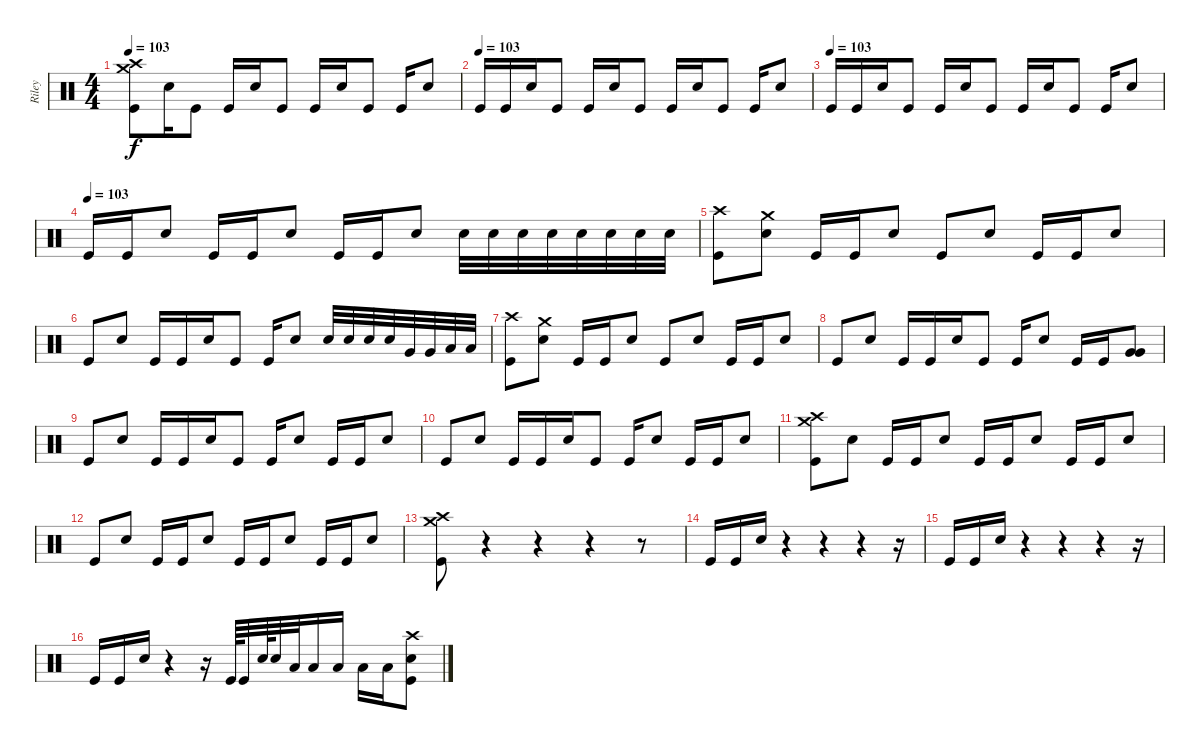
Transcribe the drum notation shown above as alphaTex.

\track ("Riley" "Riley") {instrument percussion}
\staff {score}
\articulation defaults
\ts (4 4)
\tempo 103
\clef neutral
\ks c
("Crash high (hit)" "Crash medium (hit)" "Kick (hit)").8{dy f} "Electric Snare (hit)".16 "Kick (hit)".8 "Kick (hit)".16 "Electric Snare (hit)".16 "Kick (hit)".8 "Kick (hit)".16 "Electric Snare (hit)".16 "Kick (hit)".8 "Kick (hit)".16 "Electric Snare (hit)".8 |
\tempo (103)
"Kick (hit)".16 "Kick (hit)".16 "Electric Snare (hit)".16 "Kick (hit)".8 "Kick (hit)".16 "Electric Snare (hit)".16 "Kick (hit)".8 "Kick (hit)".16 "Electric Snare (hit)".16 "Kick (hit)".8 "Kick (hit)".16 "Electric Snare (hit)".8 |
\tempo (103)
"Kick (hit)".16 "Kick (hit)".16 "Electric Snare (hit)".16 "Kick (hit)".8 "Kick (hit)".16 "Electric Snare (hit)".16 "Kick (hit)".8 "Kick (hit)".16 "Electric Snare (hit)".16 "Kick (hit)".8 "Kick (hit)".16 "Electric Snare (hit)".8 |
\tempo (103)
"Kick (hit)".16 "Kick (hit)".16 "Electric Snare (hit)".8 "Kick (hit)".16 "Kick (hit)".16 "Electric Snare (hit)".8 "Kick (hit)".16 "Kick (hit)".16 "Electric Snare (hit)".8 "Electric Snare (hit)".32 "Electric Snare (hit)".32 "Electric Snare (hit)".32 "Electric Snare (hit)".32 "Electric Snare (hit)".32 "Electric Snare (hit)".32 "Electric Snare (hit)".32 "Electric Snare (hit)".32 |
("Crash high (hit)" "Kick (hit)").8 ("Crash medium (hit)" "Electric Snare (hit)").8 "Kick (hit)".16 "Kick (hit)".16 "Electric Snare (hit)".8 "Kick (hit)".8 "Electric Snare (hit)".8 "Kick (hit)".16 "Kick (hit)".16 "Electric Snare (hit)".8 |
"Kick (hit)".8 "Electric Snare (hit)".8 "Kick (hit)".16 "Kick (hit)".16 "Electric Snare (hit)".16 "Kick (hit)".8 "Kick (hit)".16 "Electric Snare (hit)".8 "Electric Snare (hit)".32 "Electric Snare (hit)".32 "Electric Snare (hit)".32 "Electric Snare (hit)".32 "Very Low Tom (hit)".32 "Very Low Tom (hit)".32 "Low Floor Tom (hit)".32 "Low Floor Tom (hit)".32 |
("Crash high (hit)" "Kick (hit)").8 ("Crash medium (hit)" "Electric Snare (hit)").8 "Kick (hit)".16 "Kick (hit)".16 "Electric Snare (hit)".8 "Kick (hit)".8 "Electric Snare (hit)".8 "Kick (hit)".16 "Kick (hit)".16 "Electric Snare (hit)".8 |
"Kick (hit)".8 "Electric Snare (hit)".8 "Kick (hit)".16 "Kick (hit)".16 "Electric Snare (hit)".16 "Kick (hit)".8 "Kick (hit)".16 "Electric Snare (hit)".8 "Kick (hit)".16 "Kick (hit)".16 ("Very Low Tom (hit)" "Very Low Tom (hit)").8 |
"Kick (hit)".8 "Electric Snare (hit)".8 "Kick (hit)".16 "Kick (hit)".16 "Electric Snare (hit)".16 "Kick (hit)".8 "Kick (hit)".16 "Electric Snare (hit)".8 "Kick (hit)".16 "Kick (hit)".16 "Electric Snare (hit)".8 |
"Kick (hit)".8 "Electric Snare (hit)".8 "Kick (hit)".16 "Kick (hit)".16 "Electric Snare (hit)".16 "Kick (hit)".8 "Kick (hit)".16 "Electric Snare (hit)".8 "Kick (hit)".16 "Kick (hit)".16 "Electric Snare (hit)".8 |
("Crash medium (hit)" "Crash high (hit)" "Kick (hit)").8 "Electric Snare (hit)".8 "Kick (hit)".16 "Kick (hit)".16 "Electric Snare (hit)".8 "Kick (hit)".16 "Kick (hit)".16 "Electric Snare (hit)".8 "Kick (hit)".16 "Kick (hit)".16 "Electric Snare (hit)".8 |
"Kick (hit)".8 "Electric Snare (hit)".8 "Kick (hit)".16 "Kick (hit)".16 "Electric Snare (hit)".8 "Kick (hit)".16 "Kick (hit)".16 "Electric Snare (hit)".8 "Kick (hit)".16 "Kick (hit)".16 "Electric Snare (hit)".8 |
("Crash high (hit)" "Crash medium (hit)" "Kick (hit)").8 r.4 r.4 r.4 r.8 |
"Kick (hit)".16 "Kick (hit)".16 "Electric Snare (hit)".16 r.4 r.4 r.4 r.16 |
"Kick (hit)".16 "Kick (hit)".16 "Electric Snare (hit)".16 r.4 r.4 r.4 r.16 |
"Kick (hit)".16 "Kick (hit)".16 "Electric Snare (hit)".16 r.4 r.16 "Kick (hit)".64 "Kick (hit)".32 "Electric Snare (hit)".64 "Electric Snare (hit)".32 "Low Floor Tom (hit)".32 "Low Floor Tom (hit)".16 "Low Floor Tom (hit)".16 "Low Floor Tom (hit)".16 "Low Floor Tom (hit)".16 ("Crash high (hit)" "Electric Snare (hit)" "Kick (hit)").8
